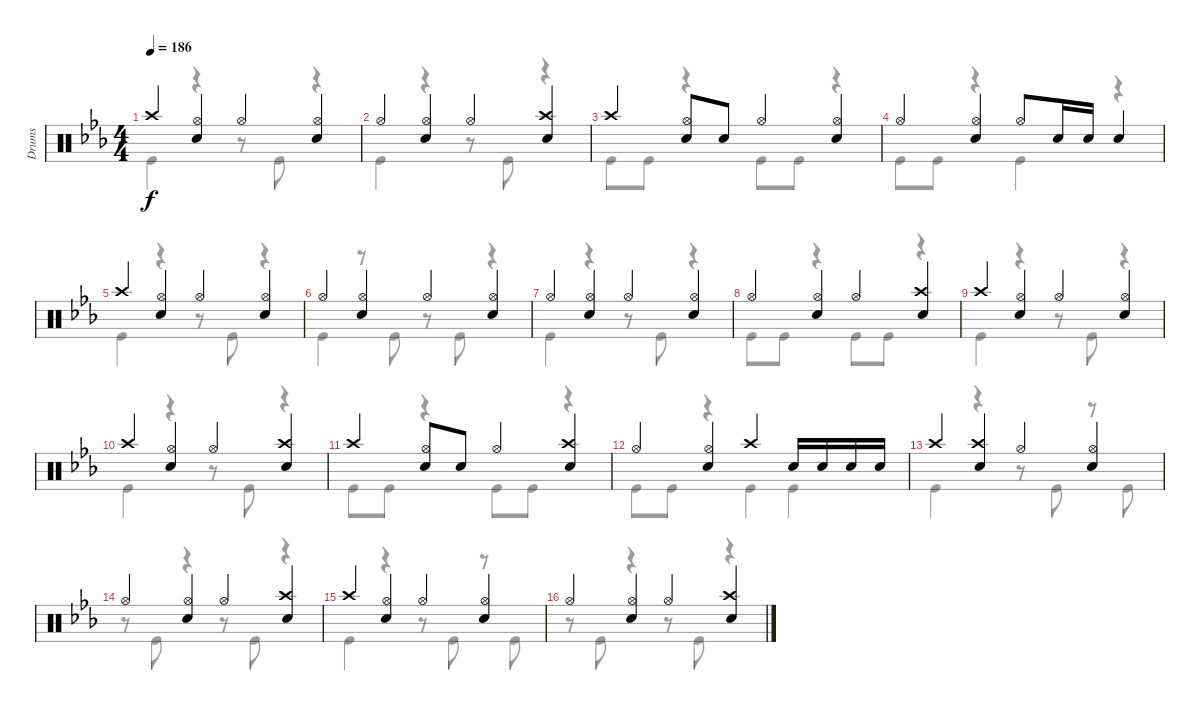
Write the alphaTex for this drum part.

\track ("Drums" "Drums") {instrument percussion}
\staff {score}
\articulation defaults
\voice
\ts (4 4)
\tempo 186
\clef neutral
\ks eb "Crash high (hit)".4{dy f beam Up}
("Hi-Hat (open)" "Snare (hit) 2").4{beam Up} "Hi-Hat (open)".4{beam Up} ("Hi-Hat (open)" "Snare (hit) 2").4{beam Up} |
"Hi-Hat (open)".4{beam Up} ("Snare (hit) 2" "Hi-Hat (open)").4{beam Up} "Hi-Hat (open)".4{beam Up} ("Crash high (hit)" "Snare (hit) 2").4{beam Up} |
"Crash high (hit)".4{beam Up} ("Hi-Hat (open)" "Snare (hit) 2").8{beam Up} "Snare (hit) 2".8{beam Up} "Hi-Hat (open)".4{beam Up} ("Hi-Hat (open)" "Snare (hit) 2").4{beam Up} |
"Hi-Hat (open)".4{beam Up} ("Hi-Hat (open)" "Snare (hit) 2").4{beam Up} "Hi-Hat (open)".8{beam Up} "Snare (hit) 2".16{beam Up} "Snare (hit) 2".16{beam Up} "Snare (hit) 2".4{beam Up} |
"Crash high (hit)".4{beam Up} ("Hi-Hat (open)" "Snare (hit) 2").4{beam Up} "Hi-Hat (open)".4{beam Up} ("Hi-Hat (open)" "Snare (hit) 2").4{beam Up} |
"Hi-Hat (open)".4{beam Up} ("Snare (hit) 2" "Hi-Hat (open)").4{beam Up} "Hi-Hat (open)".4{beam Up} ("Hi-Hat (open)" "Snare (hit) 2").4{beam Up} |
"Hi-Hat (open)".4{beam Up} ("Snare (hit) 2" "Hi-Hat (open)").4{beam Up} "Hi-Hat (open)".4{beam Up} ("Hi-Hat (open)" "Snare (hit) 2").4{beam Up} |
"Hi-Hat (open)".4{beam Up} ("Snare (hit) 2" "Hi-Hat (open)").4{beam Up} "Hi-Hat (open)".4{beam Up} ("Crash high (hit)" "Snare (hit) 2").4{beam Up} |
"Crash high (hit)".4{beam Up} ("Hi-Hat (open)" "Snare (hit) 2").4{beam Up} "Hi-Hat (open)".4{beam Up} ("Hi-Hat (open)" "Snare (hit) 2").4{beam Up} |
"Crash high (hit)".4{beam Up} ("Hi-Hat (open)" "Snare (hit) 2").4{beam Up} "Hi-Hat (open)".4{beam Up} ("Crash high (hit)" "Snare (hit) 2").4{beam Up} |
"Crash high (hit)".4{beam Up} ("Hi-Hat (open)" "Snare (hit) 2").8{beam Up} "Snare (hit) 2".8{beam Up} "Hi-Hat (open)".4{beam Up} ("Crash high (hit)" "Snare (hit) 2").4{beam Up} |
"Hi-Hat (open)".4{beam Up} ("Hi-Hat (open)" "Snare (hit) 2").4{beam Up} "Crash high (hit)".4{beam Up} "Snare (hit) 2".16{beam Up} "Snare (hit) 2".16{beam Up} "Snare (hit) 2".16{beam Up} "Snare (hit) 2".16{beam Up} |
"Crash high (hit)".4{beam Up} ("Crash high (hit)" "Snare (hit) 2").4{beam Up} "Hi-Hat (open)".4{beam Up} ("Hi-Hat (open)" "Snare (hit) 2").4{beam Up} |
"Hi-Hat (open)".4{beam Up} ("Snare (hit) 2" "Hi-Hat (open)").4{beam Up} "Hi-Hat (open)".4{beam Up} ("Crash high (hit)" "Snare (hit) 2").4{beam Up} |
"Crash high (hit)".4{beam Up} ("Hi-Hat (open)" "Snare (hit) 2").4{beam Up} "Hi-Hat (open)".4{beam Up} ("Hi-Hat (open)" "Snare (hit) 2").4{beam Up} |
"Hi-Hat (open)".4{beam Up} ("Snare (hit) 2" "Hi-Hat (open)").4{beam Up} "Hi-Hat (open)".4{beam Up} ("Crash high (hit)" "Snare (hit) 2").4{beam Up}
\voice
\clef neutral
\ottava regular
\simile none
\ks eb "Kick (hit)".4{dy f}
r.4 r.8 "Kick (hit)".8 r.4 |
"Kick (hit)".4 r.4 r.8 "Kick (hit)".8 r.4 |
"Kick (hit)".8 "Kick (hit)".8 r.4 "Kick (hit)".8 "Kick (hit)".8 r.4 |
"Kick (hit)".8 "Kick (hit)".8 r.4 "Kick (hit)".4 r.4 |
"Kick (hit)".4 r.4 r.8 "Kick (hit)".8 r.4 |
"Kick (hit)".4 r.8 "Kick (hit)".8 r.8 "Kick (hit)".8 r.4 |
"Kick (hit)".4 r.4 r.8 "Kick (hit)".8 r.4 |
"Kick (hit)".8 "Kick (hit)".8 r.4 "Kick (hit)".8 "Kick (hit)".8 r.4 |
"Kick (hit)".4 r.4 r.8 "Kick (hit)".8 r.4 |
"Kick (hit)".4 r.4 r.8 "Kick (hit)".8 r.4 |
"Kick (hit)".8 "Kick (hit)".8 r.4 "Kick (hit)".8 "Kick (hit)".8 r.4 |
"Kick (hit)".8 "Kick (hit)".8 r.4 "Kick (hit)".4 "Kick (hit)".4 |
"Kick (hit)".4 r.4 r.8 "Kick (hit)".8 r.8 "Kick (hit)".8 |
r.8 "Kick (hit)".8 r.4 r.8 "Kick (hit)".8 r.4 |
"Kick (hit)".4 r.4 r.8 "Kick (hit)".8 r.8 "Kick (hit)".8 |
r.8 "Kick (hit)".8 r.4 r.8 "Kick (hit)".8 r.4
